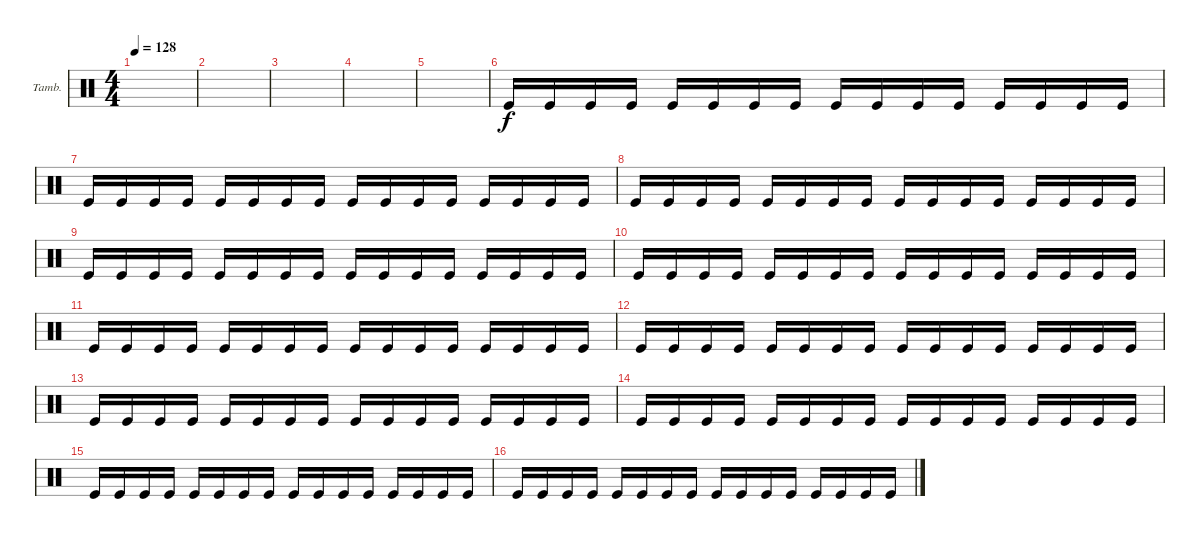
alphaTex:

\defaultSystemsLayout 4
\bracketExtendMode groupsimilarinstruments
\firstSystemTrackNameOrientation horizontal
\otherSystemsTrackNameOrientation horizontal
\track ("Tambourine" "Tamb.") {instrument percussion}
\staff {score}
\articulation defaults
\ts (4 4)
\tempo 128
\clef neutral
\scale
0.333333
\ks c
|
\scale
0.333333 |
\scale
0.333333 |
\scale
0.333333 |
\scale
0.333333 |
\scale
0.333333 "Kick (hit)".16 "Kick (hit)".16 "Kick (hit)".16 "Kick (hit)".16 "Kick (hit)".16 "Kick (hit)".16 "Kick (hit)".16 "Kick (hit)".16 "Kick (hit)".16 "Kick (hit)".16 "Kick (hit)".16 "Kick (hit)".16 "Kick (hit)".16 "Kick (hit)".16 "Kick (hit)".16 "Kick (hit)".16 |
\scale
0.333333 "Kick (hit)".16 "Kick (hit)".16 "Kick (hit)".16 "Kick (hit)".16 "Kick (hit)".16 "Kick (hit)".16 "Kick (hit)".16 "Kick (hit)".16 "Kick (hit)".16 "Kick (hit)".16 "Kick (hit)".16 "Kick (hit)".16 "Kick (hit)".16 "Kick (hit)".16 "Kick (hit)".16 "Kick (hit)".16 |
\scale
0.333333 "Kick (hit)".16 "Kick (hit)".16 "Kick (hit)".16 "Kick (hit)".16 "Kick (hit)".16 "Kick (hit)".16 "Kick (hit)".16 "Kick (hit)".16 "Kick (hit)".16 "Kick (hit)".16 "Kick (hit)".16 "Kick (hit)".16 "Kick (hit)".16 "Kick (hit)".16 "Kick (hit)".16 "Kick (hit)".16 |
\scale
0.333333 "Kick (hit)".16 "Kick (hit)".16 "Kick (hit)".16 "Kick (hit)".16 "Kick (hit)".16 "Kick (hit)".16 "Kick (hit)".16 "Kick (hit)".16 "Kick (hit)".16 "Kick (hit)".16 "Kick (hit)".16 "Kick (hit)".16 "Kick (hit)".16 "Kick (hit)".16 "Kick (hit)".16 "Kick (hit)".16 |
\scale
0.333333 "Kick (hit)".16 "Kick (hit)".16 "Kick (hit)".16 "Kick (hit)".16 "Kick (hit)".16 "Kick (hit)".16 "Kick (hit)".16 "Kick (hit)".16 "Kick (hit)".16 "Kick (hit)".16 "Kick (hit)".16 "Kick (hit)".16 "Kick (hit)".16 "Kick (hit)".16 "Kick (hit)".16 "Kick (hit)".16 |
\scale
0.333333 "Kick (hit)".16 "Kick (hit)".16 "Kick (hit)".16 "Kick (hit)".16 "Kick (hit)".16 "Kick (hit)".16 "Kick (hit)".16 "Kick (hit)".16 "Kick (hit)".16 "Kick (hit)".16 "Kick (hit)".16 "Kick (hit)".16 "Kick (hit)".16 "Kick (hit)".16 "Kick (hit)".16 "Kick (hit)".16 |
\scale
0.333333 "Kick (hit)".16 "Kick (hit)".16 "Kick (hit)".16 "Kick (hit)".16 "Kick (hit)".16 "Kick (hit)".16 "Kick (hit)".16 "Kick (hit)".16 "Kick (hit)".16 "Kick (hit)".16 "Kick (hit)".16 "Kick (hit)".16 "Kick (hit)".16 "Kick (hit)".16 "Kick (hit)".16 "Kick (hit)".16 |
\scale
0.333333 "Kick (hit)".16 "Kick (hit)".16 "Kick (hit)".16 "Kick (hit)".16 "Kick (hit)".16 "Kick (hit)".16 "Kick (hit)".16 "Kick (hit)".16 "Kick (hit)".16 "Kick (hit)".16 "Kick (hit)".16 "Kick (hit)".16 "Kick (hit)".16 "Kick (hit)".16 "Kick (hit)".16 "Kick (hit)".16 |
\scale
0.333333 "Kick (hit)".16 "Kick (hit)".16 "Kick (hit)".16 "Kick (hit)".16 "Kick (hit)".16 "Kick (hit)".16 "Kick (hit)".16 "Kick (hit)".16 "Kick (hit)".16 "Kick (hit)".16 "Kick (hit)".16 "Kick (hit)".16 "Kick (hit)".16 "Kick (hit)".16 "Kick (hit)".16 "Kick (hit)".16 |
\scale
0.333333 "Kick (hit)".16 "Kick (hit)".16 "Kick (hit)".16 "Kick (hit)".16 "Kick (hit)".16 "Kick (hit)".16 "Kick (hit)".16 "Kick (hit)".16 "Kick (hit)".16 "Kick (hit)".16 "Kick (hit)".16 "Kick (hit)".16 "Kick (hit)".16 "Kick (hit)".16 "Kick (hit)".16 "Kick (hit)".16 |
\scale
0.333333 "Kick (hit)".16 "Kick (hit)".16 "Kick (hit)".16 "Kick (hit)".16 "Kick (hit)".16 "Kick (hit)".16 "Kick (hit)".16 "Kick (hit)".16 "Kick (hit)".16 "Kick (hit)".16 "Kick (hit)".16 "Kick (hit)".16 "Kick (hit)".16 "Kick (hit)".16 "Kick (hit)".16 "Kick (hit)".16
